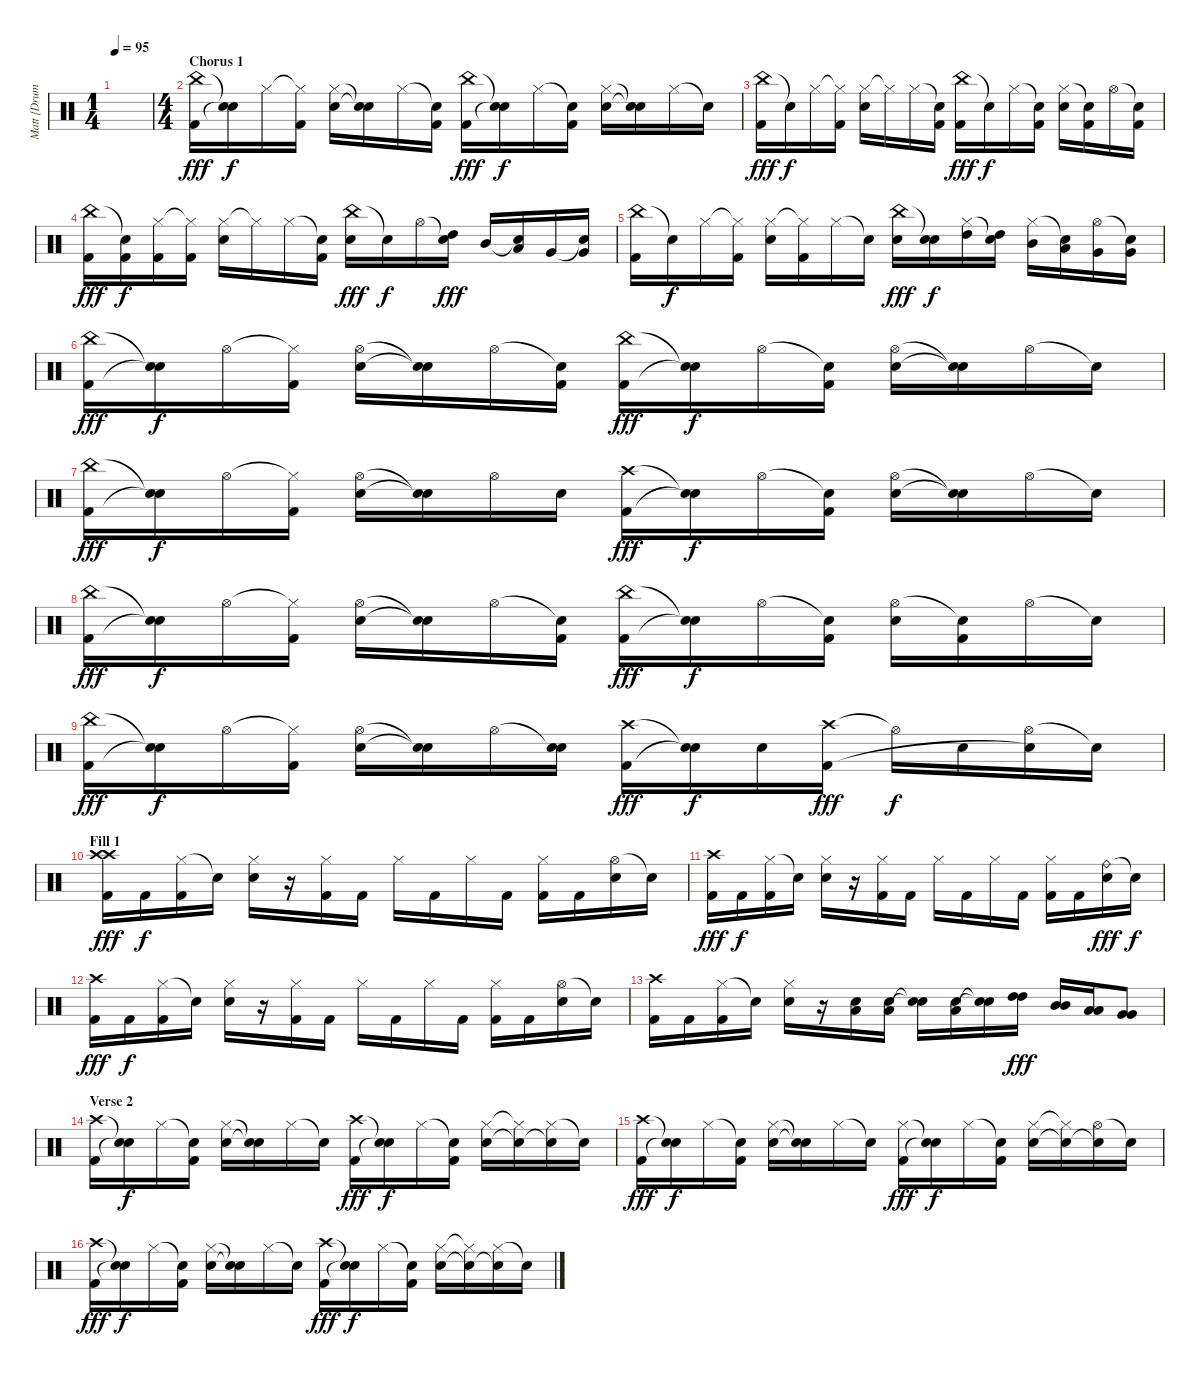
\track ("Matt {Drums}" "Matt {Drum") {instrument percussion}
\staff {score}
\articulation defaults
\ts (1 4)
\tempo 95
\clef neutral
\ks c
|
\ts (4 4)
\section ("" "Chorus 1")
("China (hit)" "Kick (hit) 2").16{dy fff} ("Snare (hit)"{t} "Snare (hit)"{t}).16{dy f} "Hi-Hat (closed)".16 ("Hi-Hat (closed)"{t} "Kick (hit) 2").16 ("Hi-Hat (closed)" "Electric Snare (hit)").16 ("Snare (hit)"{t} "Snare (hit)"{t}).16 "Hi-Hat (closed)".16 ("Snare (hit)"{t} "Kick (hit) 2").16 ("China (hit)" "Kick (hit) 2").16{dy fff} ("Snare (hit)"{t} "Snare (hit)"{t}).16{dy f} "Hi-Hat (closed)".16 ("Snare (hit)"{t} "Kick (hit) 2").16 ("Hi-Hat (closed)" "Electric Snare (hit)").16 ("Snare (hit)"{t} "Snare (hit)"{t}).16 "Hi-Hat (closed)".16 "Snare (hit)"{t}.16 |
("China (hit)" "Kick (hit) 2").16{dy fff} "Snare (hit)"{t}.16{dy f} "Hi-Hat (closed)".16 ("Hi-Hat (closed)"{t} "Kick (hit) 2").16 ("Hi-Hat (closed)" "Electric Snare (hit)").16 "Hi-Hat (closed)"{t}.16 "Hi-Hat (closed)".16 ("Snare (hit)"{t} "Kick (hit) 2").16 ("China (hit)" "Kick (hit) 2").16{dy fff} "Snare (hit)"{t}.16{dy f} "Hi-Hat (closed)".16 ("Snare (hit)"{t} "Kick (hit) 2").16 ("Hi-Hat (closed)" "Electric Snare (hit)").16 ("Snare (hit)"{t} "Kick (hit) 2").16 "Hi-Hat (open)".16 ("Snare (hit)"{t} "Kick (hit) 2").16 |
("China (hit)" "Kick (hit) 2").16{dy fff} ("Snare (hit)"{t} "Kick (hit) 2").16{dy f} ("Hi-Hat (closed)" "Kick (hit) 2").16 ("Hi-Hat (closed)"{t} "Kick (hit) 2").16 ("Hi-Hat (closed)" "Electric Snare (hit)").16 "Hi-Hat (closed)"{t}.16 "Hi-Hat (closed)".16 ("Snare (hit)"{t} "Kick (hit) 2").16 ("China (hit)" "Electric Snare (hit)").16{dy fff} "Snare (hit)"{t}.16{dy f} "Hi-Hat (open)".16 ("Snare (hit)"{t} "High Tom (hit)").16{dy fff} "Mid Tom (hit)".16 ("Snare (hit)"{t} "Low Tom (hit)").16 "Very Low Tom (hit)".16 ("Snare (hit)"{t} "Very Low Tom (hit)").16 |
("China (hit)" "Kick (hit) 2").16 "Snare (hit)"{t}.16{dy f} "Hi-Hat (closed)".16 ("Hi-Hat (closed)"{t} "Kick (hit) 2").16 ("Hi-Hat (closed)" "Electric Snare (hit)").16 ("Hi-Hat (closed)"{t} "Kick (hit) 2").16 "Hi-Hat (closed)".16 "Snare (hit)"{t}.16 ("China (hit)" "Electric Snare (hit)").16{dy fff} ("Snare (hit)"{t} "Electric Snare (hit)").16{dy f} ("Hi-Hat (closed)" "High Tom (hit)").16 ("Snare (hit)"{t} "High Tom (hit)").16 ("Hi-Hat (closed)" "Mid Tom (hit)").16 ("Snare (hit)"{t} "Low Tom (hit)").16 ("Hi-Hat (open)" "Very Low Tom (hit)").16 ("Snare (hit)"{t} "Very Low Tom (hit)").16 |
("China (hit)" "Kick (hit) 2").16{dy fff} ("Snare (hit)"{t} "Snare (hit)"{t}).16{dy f} "Hi-Hat (open)".16 ("Hi-Hat (closed)"{t} "Kick (hit) 2").16 ("Hi-Hat (open)" "Electric Snare (hit)").16 ("Snare (hit)"{t} "Snare (hit)"{t}).16 "Hi-Hat (open)".16 ("Snare (hit)"{t} "Kick (hit) 2").16 ("China (hit)" "Kick (hit) 2").16{dy fff} ("Snare (hit)"{t} "Snare (hit)"{t}).16{dy f} "Hi-Hat (open)".16 ("Snare (hit)"{t} "Kick (hit) 2").16 ("Hi-Hat (open)" "Electric Snare (hit)").16 ("Snare (hit)"{t} "Snare (hit)"{t}).16 "Hi-Hat (open)".16 "Snare (hit)"{t}.16 |
("China (hit)" "Kick (hit) 2").16{dy fff} ("Snare (hit)"{t} "Snare (hit)"{t}).16{dy f} "Hi-Hat (open)".16 ("Hi-Hat (closed)"{t} "Kick (hit) 2").16 ("Hi-Hat (open)" "Electric Snare (hit)").16 ("Snare (hit)"{t} "Snare (hit)"{t}).16 "Hi-Hat (open)".16 "Electric Snare (hit)".16 ("Crash high (hit)" "Kick (hit) 2").16{dy fff} ("Snare (hit)"{t} "Snare (hit)"{t}).16{dy f} "Hi-Hat (open)".16 ("Snare (hit)"{t} "Kick (hit) 2").16 ("Hi-Hat (open)" "Electric Snare (hit)").16 ("Snare (hit)"{t} "Snare (hit)"{t}).16 "Hi-Hat (open)".16 "Snare (hit)"{t}.16 |
("China (hit)" "Kick (hit) 2").16{dy fff} ("Snare (hit)"{t} "Snare (hit)"{t}).16{dy f} "Hi-Hat (open)".16 ("Hi-Hat (closed)"{t} "Kick (hit) 2").16 ("Hi-Hat (open)" "Electric Snare (hit)").16 ("Snare (hit)"{t} "Snare (hit)"{t}).16 "Hi-Hat (open)".16 ("Snare (hit)"{t} "Kick (hit) 2").16 ("China (hit)" "Kick (hit) 2").16{dy fff} ("Snare (hit)"{t} "Snare (hit)"{t}).16{dy f} "Hi-Hat (open)".16 ("Snare (hit)"{t} "Kick (hit) 2").16 ("Hi-Hat (open)" "Electric Snare (hit)").16 ("Snare (hit)"{t} "Kick (hit) 2").16 "Hi-Hat (open)".16 "Snare (hit)"{t}.16 |
("China (hit)" "Kick (hit) 2").16{dy fff} ("Snare (hit)"{t} "Snare (hit)"{t}).16{dy f} "Hi-Hat (open)".16 ("Hi-Hat (closed)"{t} "Kick (hit) 2").16 ("Hi-Hat (open)" "Electric Snare (hit)").16 ("Snare (hit)"{t} "Snare (hit)"{t}).16 "Hi-Hat (open)".16 ("Snare (hit)"{t} "Electric Snare (hit)").16 ("Crash high (hit)" "Kick (hit) 2").16{dy fff} ("Snare (hit)"{t} "Snare (hit)"{t}).16{dy f} "Electric Snare (hit)".16 ("Crash high (hit)" "Kick (hit) 2").16{dy fff} "Hi-Hat (open)"{t}.16{dy f} "Electric Snare (hit)".16 ("Hi-Hat (open)" "Snare (hit)"{t}).16 "Snare (hit)"{t}.16 |
\section ("" "Fill 1")
("Crash high (hit)" "Crash high (hit)" "Kick (hit) 2").16{dy fff} "Kick (hit) 2".16{dy f} ("Hi-Hat (closed)" "Kick (hit) 2").16 "Electric Snare (hit)"{t}.16 ("Hi-Hat (closed)" "Electric Snare (hit)").16 r.16 ("Hi-Hat (closed)" "Kick (hit) 2").16 "Kick (hit) 2".16 "Hi-Hat (closed)".16 "Kick (hit) 2".16 "Hi-Hat (closed)".16 "Kick (hit) 2".16 ("Hi-Hat (closed)" "Kick (hit) 2").16 "Kick (hit) 2".16 ("Hi-Hat (open)" "Electric Snare (hit)").16 "Snare (hit)"{t}.16 |
("Crash high (hit)" "Kick (hit) 2").16{dy fff} "Kick (hit) 2".16{dy f} ("Hi-Hat (closed)" "Kick (hit) 2").16 "Electric Snare (hit)"{t}.16 ("Hi-Hat (closed)" "Electric Snare (hit)").16 r.16 ("Hi-Hat (closed)" "Kick (hit) 2").16 "Kick (hit) 2".16 "Hi-Hat (closed)".16 "Kick (hit) 2".16 "Hi-Hat (closed)".16 "Kick (hit) 2".16 ("Hi-Hat (closed)" "Kick (hit) 2").16 "Kick (hit) 2".16 ("Ride (bell)" "Electric Snare (hit)").16{dy fff} "Snare (hit)"{t}.16{dy f} |
("Crash high (hit)" "Kick (hit) 2").16{dy fff} "Kick (hit) 2".16{dy f} ("Hi-Hat (closed)" "Kick (hit) 2").16 "Electric Snare (hit)"{t}.16 ("Hi-Hat (closed)" "Electric Snare (hit)").16 r.16 ("Hi-Hat (closed)" "Kick (hit) 2").16 "Kick (hit) 2".16 "Hi-Hat (closed)".16 "Kick (hit) 2".16 "Hi-Hat (closed)".16 "Kick (hit) 2".16 ("Hi-Hat (closed)" "Kick (hit) 2").16 "Kick (hit) 2".16 ("Hi-Hat (open)" "Electric Snare (hit)").16 "Snare (hit)"{t}.16 |
("Crash high (hit)" "Kick (hit) 2").16 "Kick (hit) 2".16 ("Hi-Hat (closed)" "Kick (hit) 2").16 "Snare (hit)"{t}.16 ("Hi-Hat (closed)" "Electric Snare (hit)").16 r.16 ("Low Tom (hit)" "Electric Snare (hit)").16 ("Low Tom (hit)" "Electric Snare (hit)").16 ("Snare (hit)"{t} "Snare (hit)"{t}).16 ("Low Tom (hit)" "Electric Snare (hit)").16 ("Snare (hit)"{t} "Snare (hit)"{t}).16 ("High Tom (hit)" "High Tom (hit)").16{dy fff} ("Mid Tom (hit)" "Mid Tom (hit)").16 ("Low Tom (hit)" "Low Tom (hit)").16 ("Very Low Tom (hit)" "Very Low Tom (hit)").8 |
\section ("" "Verse 2")
("Crash high (hit)" "Kick (hit) 2").16 ("Snare (hit)"{t} "Snare (hit)"{t}).16{dy f} "Hi-Hat (closed)".16 ("Snare (hit)"{t} "Kick (hit) 2").16 ("Hi-Hat (closed)" "Electric Snare (hit)").16 ("Snare (hit)"{t} "Snare (hit)"{t}).16 "Hi-Hat (closed)".16 "Snare (hit)"{t}.16 ("Crash high (hit)" "Kick (hit) 2").16{dy fff} ("Snare (hit)"{t} "Snare (hit)"{t}).16{dy f} "Hi-Hat (closed)".16 ("Snare (hit)"{t} "Kick (hit) 2").16 ("Hi-Hat (closed)" "Electric Snare (hit)").16 ("Hi-Hat (closed)"{t} "Snare (hit)"{t}).16 ("Hi-Hat (closed)" "Snare (hit)"{t}).16 "Snare (hit)"{t}.16 |
("Crash high (hit)" "Kick (hit) 2").16{dy fff} ("Snare (hit)"{t} "Snare (hit)"{t}).16{dy f} "Hi-Hat (closed)".16 ("Snare (hit)"{t} "Kick (hit) 2").16 ("Hi-Hat (closed)" "Electric Snare (hit)").16 ("Snare (hit)"{t} "Snare (hit)"{t}).16 "Hi-Hat (closed)".16 "Snare (hit)"{t}.16 ("Hi-Hat (closed)" "Kick (hit) 2").16{dy fff} ("Snare (hit)"{t} "Snare (hit)"{t}).16{dy f} "Hi-Hat (closed)".16 ("Snare (hit)"{t} "Kick (hit) 2").16 ("Hi-Hat (closed)" "Electric Snare (hit)").16 ("Hi-Hat (closed)"{t} "Snare (hit)"{t}).16 ("Hi-Hat (open)" "Snare (hit)"{t}).16 "Snare (hit)"{t}.16 |
("Crash high (hit)" "Kick (hit) 2").16{dy fff} ("Snare (hit)"{t} "Snare (hit)"{t}).16{dy f} "Hi-Hat (closed)".16 ("Snare (hit)"{t} "Kick (hit) 2").16 ("Hi-Hat (closed)" "Electric Snare (hit)").16 ("Snare (hit)"{t} "Snare (hit)"{t}).16 "Hi-Hat (closed)".16 "Snare (hit)"{t}.16 ("Crash high (hit)" "Kick (hit) 2").16{dy fff} ("Snare (hit)"{t} "Snare (hit)"{t}).16{dy f} "Hi-Hat (closed)".16 ("Snare (hit)"{t} "Kick (hit) 2").16 ("Hi-Hat (closed)" "Electric Snare (hit)").16 ("Hi-Hat (closed)"{t} "Snare (hit)"{t}).16 ("Hi-Hat (closed)" "Snare (hit)"{t}).16 "Snare (hit)"{t}.16
